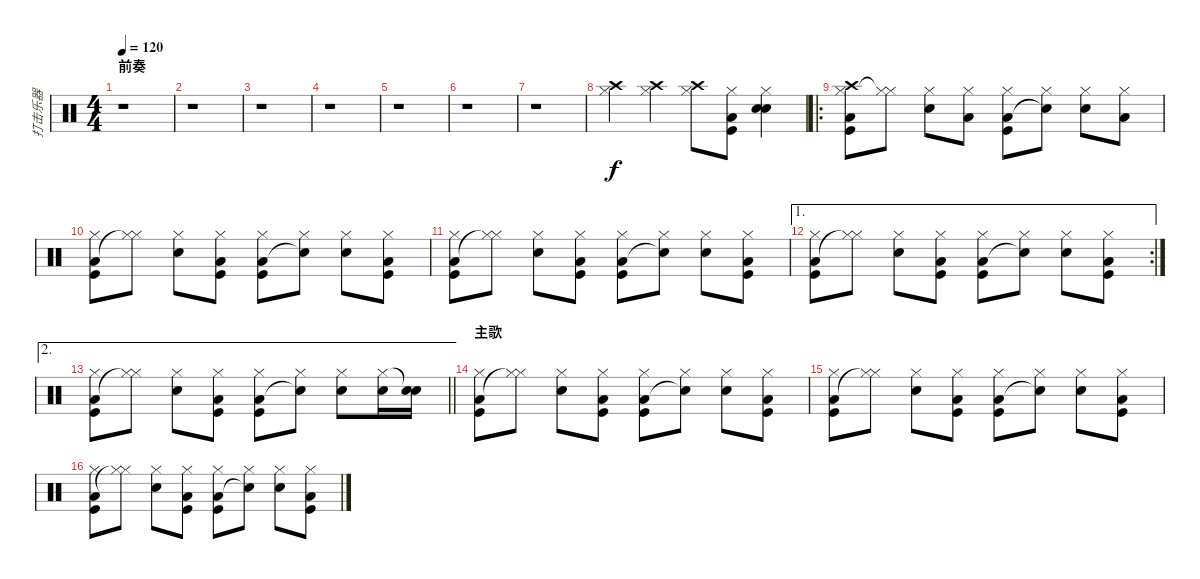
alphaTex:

\track ("打击乐器" "打击乐器") {instrument percussion}
\staff {score}
\articulation defaults
\ts (4 4)
\section ("" "前奏")
\tempo 120
\clef neutral
\ks c
r.1{dy f} |
r.1 |
r.1 |
r.1 |
r.1 |
r.1 |
r.1 |
("Hi-Hat (closed)" "Crash high (hit)").4 ("Hi-Hat (closed)" "Crash high (hit)").4 ("Hi-Hat (closed)" "Crash high (hit)").8 ("Hi-Hat (closed)" "Low Floor Tom (hit)" "Kick (hit)").8 ("Hi-Hat (closed)" "Electric Snare (hit)" "Snare (hit) 2").4 |
\ro
("Crash high (hit)" "Hi-Hat (closed)" "Low Floor Tom (hit)" "Kick (hit)").8 ("Hi-Hat (closed)" "Hi-Hat (closed)"{t}).8 ("Hi-Hat (closed)" "Electric Snare (hit)").8 ("Hi-Hat (closed)" "Low Floor Tom (hit)").8 ("Hi-Hat (closed)" "Low Floor Tom (hit)" "Kick (hit)").8 ("Hi-Hat (closed)" "Snare (hit)"{t}).8 ("Hi-Hat (closed)" "Electric Snare (hit)").8 ("Hi-Hat (closed)" "Low Floor Tom (hit)").8 |
("Hi-Hat (closed)" "Low Floor Tom (hit)" "Kick (hit)").8 ("Hi-Hat (closed)" "Hi-Hat (closed)"{t}).8 ("Hi-Hat (closed)" "Electric Snare (hit)").8 ("Hi-Hat (closed)" "Low Floor Tom (hit)" "Kick (hit)").8 ("Hi-Hat (closed)" "Low Floor Tom (hit)" "Kick (hit)").8 ("Hi-Hat (closed)" "Snare (hit)"{t}).8 ("Hi-Hat (closed)" "Electric Snare (hit)").8 ("Hi-Hat (closed)" "Low Floor Tom (hit)" "Kick (hit)").8 |
("Hi-Hat (closed)" "Low Floor Tom (hit)" "Kick (hit)").8 ("Hi-Hat (closed)" "Hi-Hat (closed)"{t}).8 ("Hi-Hat (closed)" "Electric Snare (hit)").8 ("Hi-Hat (closed)" "Low Floor Tom (hit)" "Kick (hit)").8 ("Hi-Hat (closed)" "Low Floor Tom (hit)" "Kick (hit)").8 ("Hi-Hat (closed)" "Snare (hit)"{t}).8 ("Hi-Hat (closed)" "Electric Snare (hit)").8 ("Hi-Hat (closed)" "Low Floor Tom (hit)" "Kick (hit)").8 |
\ae 1
\rc 2
("Hi-Hat (closed)" "Low Floor Tom (hit)" "Kick (hit)").8 ("Hi-Hat (closed)" "Hi-Hat (closed)"{t}).8 ("Hi-Hat (closed)" "Electric Snare (hit)").8 ("Hi-Hat (closed)" "Low Floor Tom (hit)" "Kick (hit)").8 ("Hi-Hat (closed)" "Low Floor Tom (hit)" "Kick (hit)").8 ("Hi-Hat (closed)" "Snare (hit)"{t}).8 ("Hi-Hat (closed)" "Electric Snare (hit)").8 ("Hi-Hat (closed)" "Low Floor Tom (hit)" "Kick (hit)").8 |
\ae 2
\barLineRight lightlight
("Hi-Hat (closed)" "Low Floor Tom (hit)" "Kick (hit)").8 ("Hi-Hat (closed)" "Hi-Hat (closed)"{t}).8 ("Hi-Hat (closed)" "Electric Snare (hit)").8 ("Hi-Hat (closed)" "Low Floor Tom (hit)" "Kick (hit)").8 ("Hi-Hat (closed)" "Low Floor Tom (hit)" "Kick (hit)").8 ("Hi-Hat (closed)" "Snare (hit)"{t}).8 ("Hi-Hat (closed)" "Electric Snare (hit)").8 ("Hi-Hat (closed)" "Electric Snare (hit)").16 ("Snare (hit)"{t} "Electric Snare (hit)").16 |
\section ("" "主歌")
("Hi-Hat (closed)" "Low Floor Tom (hit)" "Kick (hit)").8 ("Hi-Hat (closed)" "Hi-Hat (closed)"{t}).8 ("Hi-Hat (closed)" "Electric Snare (hit)").8 ("Hi-Hat (closed)" "Low Floor Tom (hit)" "Kick (hit)").8 ("Hi-Hat (closed)" "Low Floor Tom (hit)" "Kick (hit)").8 ("Hi-Hat (closed)" "Snare (hit)"{t}).8 ("Hi-Hat (closed)" "Electric Snare (hit)").8 ("Hi-Hat (closed)" "Low Floor Tom (hit)" "Kick (hit)").8 |
("Hi-Hat (closed)" "Low Floor Tom (hit)" "Kick (hit)").8 ("Hi-Hat (closed)" "Hi-Hat (closed)"{t}).8 ("Hi-Hat (closed)" "Electric Snare (hit)").8 ("Hi-Hat (closed)" "Low Floor Tom (hit)" "Kick (hit)").8 ("Hi-Hat (closed)" "Low Floor Tom (hit)" "Kick (hit)").8 ("Hi-Hat (closed)" "Snare (hit)"{t}).8 ("Hi-Hat (closed)" "Electric Snare (hit)").8 ("Hi-Hat (closed)" "Low Floor Tom (hit)" "Kick (hit)").8 |
("Hi-Hat (closed)" "Low Floor Tom (hit)" "Kick (hit)").8 ("Hi-Hat (closed)" "Hi-Hat (closed)"{t}).8 ("Hi-Hat (closed)" "Electric Snare (hit)").8 ("Hi-Hat (closed)" "Low Floor Tom (hit)" "Kick (hit)").8 ("Hi-Hat (closed)" "Low Floor Tom (hit)" "Kick (hit)").8 ("Hi-Hat (closed)" "Snare (hit)"{t}).8 ("Hi-Hat (closed)" "Electric Snare (hit)").8 ("Hi-Hat (closed)" "Low Floor Tom (hit)" "Kick (hit)").8
